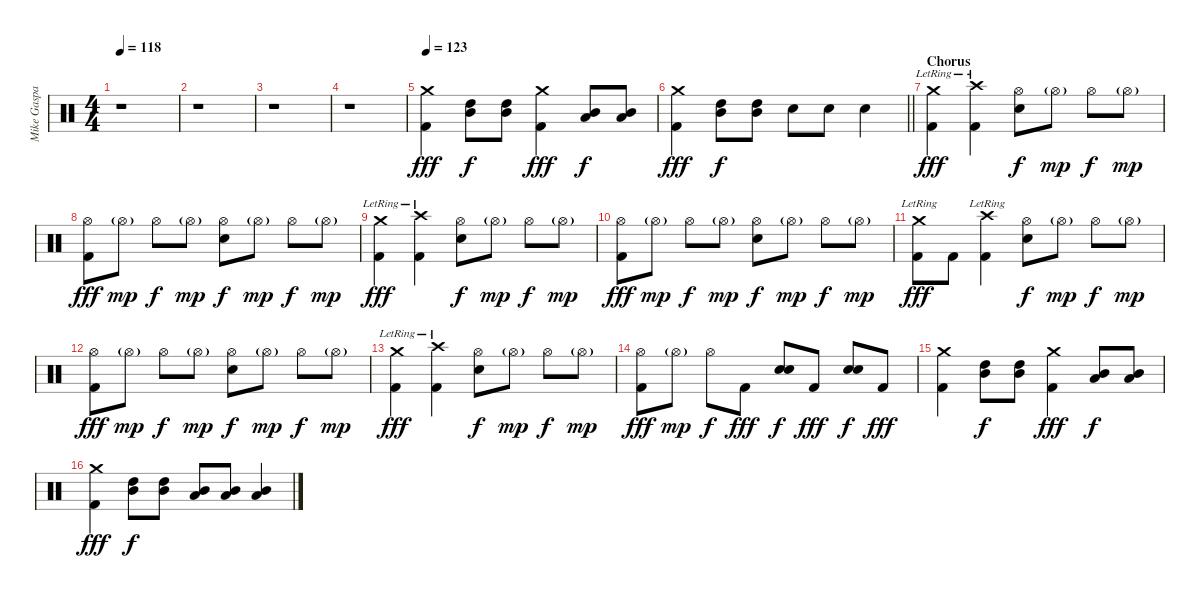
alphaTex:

\track ("Mike Gaspar (Drums)" "Mike Gaspa") {instrument percussion}
\staff {score}
\articulation defaults
\ts (4 4)
\tempo 118
\clef neutral
\ks c
r.1{dy f} |
r.1 |
r.1 |
r.1 |
\tempo 123
("Crash medium (hit)" "Kick (hit) 2").4{dy fff} ("High Tom (hit)" "Mid Tom (hit)").8{dy f} ("High Tom (hit)" "Mid Tom (hit)").8 ("Crash medium (hit)" "Kick (hit) 2").4{dy fff} ("Mid Tom (hit)" "Low Tom (hit)").8{dy f} ("Mid Tom (hit)" "Low Tom (hit)").8 |
\barLineRight lightlight
("Crash medium (hit)" "Kick (hit) 2").4{dy fff} ("High Tom (hit)" "Mid Tom (hit)").8{dy f} ("High Tom (hit)" "Mid Tom (hit)").8 "Snare (hit) 2".8 "Snare (hit) 2".8 "Snare (hit) 2".4 |
\section ("" "Chorus")
("Crash medium (hit)"{lr} "Kick (hit) 2").4{dy fff} ("Crash high (hit)"{lr} "Kick (hit) 2").4 ("Hi-Hat (open)" "Snare (hit) 2").8{dy f} "Hi-Hat (open)"{g}.8{dy mp} "Hi-Hat (open)".8{dy f} "Hi-Hat (open)"{g}.8{dy mp} |
("Hi-Hat (open)" "Kick (hit) 2").8{dy fff} "Hi-Hat (open)"{g}.8{dy mp} "Hi-Hat (open)".8{dy f} "Hi-Hat (open)"{g}.8{dy mp} ("Hi-Hat (open)" "Snare (hit) 2").8{dy f} "Hi-Hat (open)"{g}.8{dy mp} "Hi-Hat (open)".8{dy f} "Hi-Hat (open)"{g}.8{dy mp} |
("Crash medium (hit)"{lr} "Kick (hit) 2").4{dy fff} ("Crash high (hit)"{lr} "Kick (hit) 2").4 ("Hi-Hat (open)" "Snare (hit) 2").8{dy f} "Hi-Hat (open)"{g}.8{dy mp} "Hi-Hat (open)".8{dy f} "Hi-Hat (open)"{g}.8{dy mp} |
("Hi-Hat (open)" "Kick (hit) 2").8{dy fff} "Hi-Hat (open)"{g}.8{dy mp} "Hi-Hat (open)".8{dy f} "Hi-Hat (open)"{g}.8{dy mp} ("Hi-Hat (open)" "Snare (hit) 2").8{dy f} "Hi-Hat (open)"{g}.8{dy mp} "Hi-Hat (open)".8{dy f} "Hi-Hat (open)"{g}.8{dy mp} |
("Crash medium (hit)"{lr} "Kick (hit) 2").8{dy fff} "Kick (hit) 2".8 ("Crash high (hit)"{lr} "Kick (hit) 2").4 ("Hi-Hat (open)" "Snare (hit) 2").8{dy f} "Hi-Hat (open)"{g}.8{dy mp} "Hi-Hat (open)".8{dy f} "Hi-Hat (open)"{g}.8{dy mp} |
("Hi-Hat (open)" "Kick (hit) 2").8{dy fff} "Hi-Hat (open)"{g}.8{dy mp} "Hi-Hat (open)".8{dy f} "Hi-Hat (open)"{g}.8{dy mp} ("Hi-Hat (open)" "Snare (hit) 2").8{dy f} "Hi-Hat (open)"{g}.8{dy mp} "Hi-Hat (open)".8{dy f} "Hi-Hat (open)"{g}.8{dy mp} |
("Crash medium (hit)"{lr} "Kick (hit) 2").4{dy fff} ("Crash high (hit)"{lr} "Kick (hit) 2").4 ("Hi-Hat (open)" "Snare (hit) 2").8{dy f} "Hi-Hat (open)"{g}.8{dy mp} "Hi-Hat (open)".8{dy f} "Hi-Hat (open)"{g}.8{dy mp} |
("Hi-Hat (open)" "Kick (hit) 2").8{dy fff} "Hi-Hat (open)"{g}.8{dy mp} "Hi-Hat (open)".8{dy f} "Kick (hit) 2".8{dy fff} ("Snare (hit) 2" "Snare (hit) 2").8{bd 30 dy f} "Kick (hit) 2".8{dy fff} ("Snare (hit) 2" "Snare (hit) 2").8{bd 30 dy f} "Kick (hit) 2".8{dy fff} |
("Crash medium (hit)" "Kick (hit) 2").4 ("High Tom (hit)" "Mid Tom (hit)").8{dy f} ("High Tom (hit)" "Mid Tom (hit)").8 ("Crash medium (hit)" "Kick (hit) 2").4{dy fff} ("Mid Tom (hit)" "Low Tom (hit)").8{dy f} ("Mid Tom (hit)" "Low Tom (hit)").8 |
("Crash medium (hit)" "Kick (hit) 2").4{dy fff} ("High Tom (hit)" "Mid Tom (hit)").8{dy f} ("High Tom (hit)" "Mid Tom (hit)").8 ("Mid Tom (hit)" "Low Tom (hit)").8 ("Mid Tom (hit)" "Low Tom (hit)").8 ("Mid Tom (hit)" "Low Tom (hit)").4
